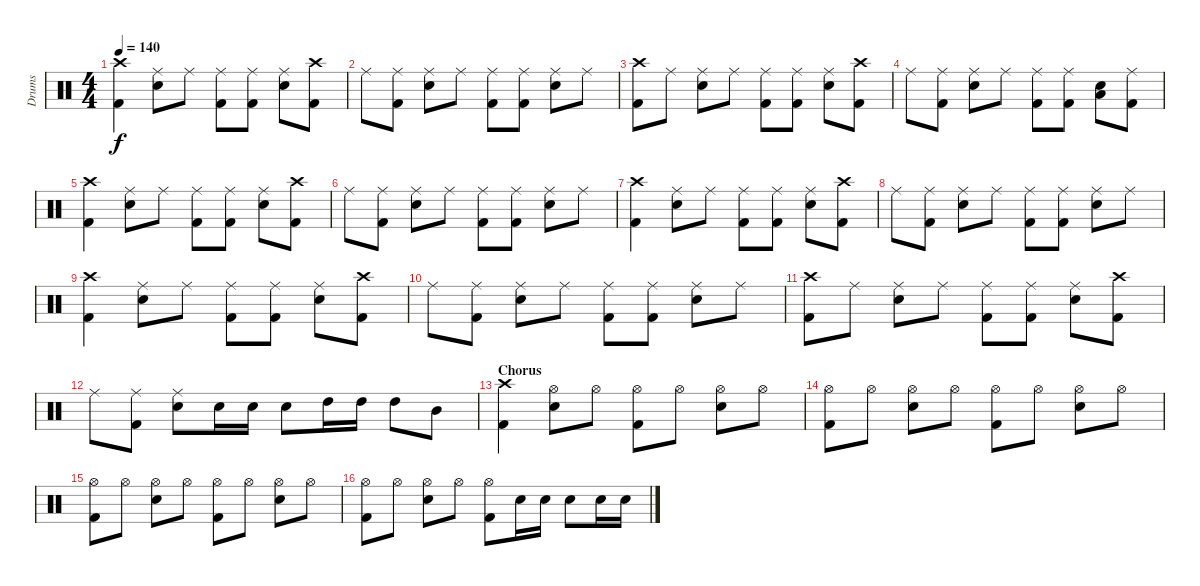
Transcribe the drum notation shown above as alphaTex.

\track ("Drums" "Drums") {instrument percussion}
\staff {score}
\articulation defaults
\ts (4 4)
\tempo 140
\clef neutral
\ks c
("Crash high (hit)" "Kick (hit) 2").4{dy f} ("Ride (middle)" "Electric Snare (hit)").8 "Ride (middle)".8 ("Ride (middle)" "Kick (hit) 2").8 ("Ride (middle)" "Kick (hit) 2").8 ("Ride (middle)" "Electric Snare (hit)").8 ("Crash high (hit)" "Kick (hit) 2").8 |
"Ride (middle)".8 ("Ride (middle)" "Kick (hit) 2").8 ("Ride (middle)" "Electric Snare (hit)").8 "Ride (middle)".8 ("Ride (middle)" "Kick (hit) 2").8 ("Ride (middle)" "Kick (hit) 2").8 ("Ride (middle)" "Electric Snare (hit)").8 "Ride (middle)".8 |
("Crash high (hit)" "Kick (hit) 2").8 "Ride (middle)".8 ("Ride (middle)" "Electric Snare (hit)").8 "Ride (middle)".8 ("Ride (middle)" "Kick (hit) 2").8 ("Ride (middle)" "Kick (hit) 2").8 ("Ride (middle)" "Electric Snare (hit)").8 ("Crash high (hit)" "Kick (hit) 2").8 |
"Ride (middle)".8 ("Ride (middle)" "Kick (hit) 2").8 ("Ride (middle)" "Electric Snare (hit)").8 "Ride (middle)".8 ("Ride (middle)" "Kick (hit) 2").8 ("Ride (middle)" "Kick (hit) 2").8 ("Electric Snare (hit)" "Low Floor Tom (hit)").8 ("Ride (middle)" "Kick (hit) 2").8 |
("Crash high (hit)" "Kick (hit) 2").4 ("Ride (middle)" "Electric Snare (hit)").8 "Ride (middle)".8 ("Ride (middle)" "Kick (hit) 2").8 ("Ride (middle)" "Kick (hit) 2").8 ("Ride (middle)" "Electric Snare (hit)").8 ("Crash high (hit)" "Kick (hit) 2").8 |
"Ride (middle)".8 ("Ride (middle)" "Kick (hit) 2").8 ("Ride (middle)" "Electric Snare (hit)").8 "Ride (middle)".8 ("Ride (middle)" "Kick (hit) 2").8 ("Ride (middle)" "Kick (hit) 2").8 ("Ride (middle)" "Electric Snare (hit)").8 "Ride (middle)".8 |
("Crash high (hit)" "Kick (hit) 2").4 ("Ride (middle)" "Electric Snare (hit)").8 "Ride (middle)".8 ("Ride (middle)" "Kick (hit) 2").8 ("Ride (middle)" "Kick (hit) 2").8 ("Ride (middle)" "Electric Snare (hit)").8 ("Crash high (hit)" "Kick (hit) 2").8 |
"Ride (middle)".8 ("Ride (middle)" "Kick (hit) 2").8 ("Ride (middle)" "Electric Snare (hit)").8 "Ride (middle)".8 ("Ride (middle)" "Kick (hit) 2").8 ("Ride (middle)" "Kick (hit) 2").8 ("Ride (middle)" "Electric Snare (hit)").8 "Ride (middle)".8 |
("Crash high (hit)" "Kick (hit) 2").4 ("Ride (middle)" "Electric Snare (hit)").8 "Ride (middle)".8 ("Ride (middle)" "Kick (hit) 2").8 ("Ride (middle)" "Kick (hit) 2").8 ("Ride (middle)" "Electric Snare (hit)").8 ("Crash high (hit)" "Kick (hit) 2").8 |
"Ride (middle)".8 ("Ride (middle)" "Kick (hit) 2").8 ("Ride (middle)" "Electric Snare (hit)").8 "Ride (middle)".8 ("Ride (middle)" "Kick (hit) 2").8 ("Ride (middle)" "Kick (hit) 2").8 ("Ride (middle)" "Electric Snare (hit)").8 "Ride (middle)".8 |
("Crash high (hit)" "Kick (hit) 2").8 "Ride (middle)".8 ("Ride (middle)" "Electric Snare (hit)").8 "Ride (middle)".8 ("Ride (middle)" "Kick (hit) 2").8 ("Ride (middle)" "Kick (hit) 2").8 ("Ride (middle)" "Electric Snare (hit)").8 ("Crash high (hit)" "Kick (hit) 2").8 |
"Ride (middle)".8 ("Ride (middle)" "Kick (hit) 2").8 ("Ride (middle)" "Electric Snare (hit)").8 "Electric Snare (hit)".16 "Electric Snare (hit)".16 "Electric Snare (hit)".8 "High Tom (hit)".16 "High Tom (hit)".16 "High Tom (hit)".8 "Mid Tom (hit)".8 |
\section ("" "Chorus")
("Crash high (hit)" "Kick (hit) 2").4 ("Hi-Hat (open)" "Electric Snare (hit)").8 "Hi-Hat (open)".8 ("Hi-Hat (open)" "Kick (hit) 2").8 "Hi-Hat (open)".8 ("Hi-Hat (open)" "Electric Snare (hit)").8 "Hi-Hat (open)".8 |
("Hi-Hat (open)" "Kick (hit) 2").8 "Hi-Hat (open)".8 ("Hi-Hat (open)" "Electric Snare (hit)").8 "Hi-Hat (open)".8 ("Hi-Hat (open)" "Kick (hit) 2").8 "Hi-Hat (open)".8 ("Hi-Hat (open)" "Electric Snare (hit)").8 "Hi-Hat (open)".8 |
("Hi-Hat (open)" "Kick (hit) 2").8 "Hi-Hat (open)".8 ("Hi-Hat (open)" "Electric Snare (hit)").8 "Hi-Hat (open)".8 ("Hi-Hat (open)" "Kick (hit) 2").8 "Hi-Hat (open)".8 ("Hi-Hat (open)" "Electric Snare (hit)").8 "Hi-Hat (open)".8 |
("Hi-Hat (open)" "Kick (hit) 2").8 "Hi-Hat (open)".8 ("Hi-Hat (open)" "Electric Snare (hit)").8 "Hi-Hat (open)".8 ("Hi-Hat (open)" "Kick (hit) 2").8 "Electric Snare (hit)".16 "Electric Snare (hit)".16 "Electric Snare (hit)".8 "Electric Snare (hit)".16 "Electric Snare (hit)".16
